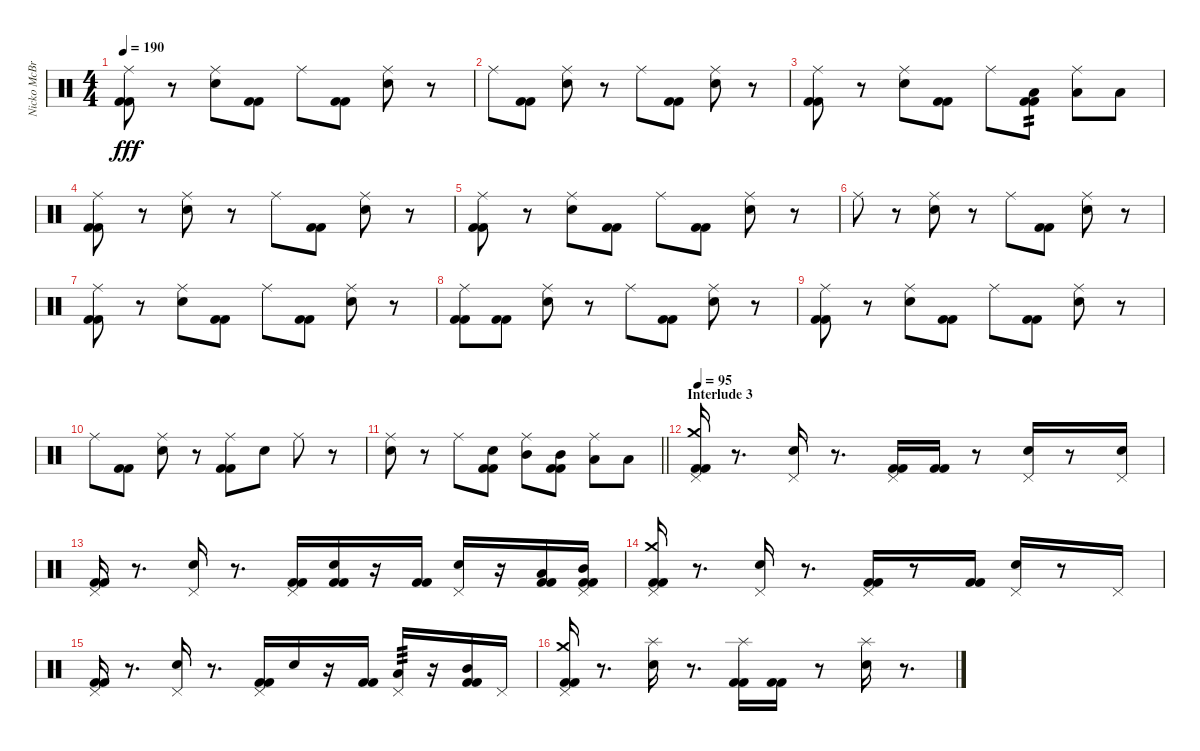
\track ("Nicko McBrain" "Nicko McBr") {instrument percussion}
\staff {score}
\articulation defaults
\ts (4 4)
\tempo 190
\clef neutral
\ks c
("Ride (middle)" "Kick (hit) 2" "Kick (hit) 2").8{dy fff} r.8 ("Snare (hit) 2" "Ride (middle)").8 ("Kick (hit) 2" "Kick (hit) 2").8 "Ride (middle)".8 ("Kick (hit) 2" "Kick (hit) 2").8 ("Snare (hit) 2" "Ride (middle)").8 r.8 |
"Ride (middle)".8 ("Kick (hit) 2" "Kick (hit) 2").8 ("Snare (hit) 2" "Ride (middle)").8 r.8 "Ride (middle)".8 ("Kick (hit) 2" "Kick (hit) 2").8 ("Snare (hit) 2" "Ride (middle)").8 r.8 |
("Ride (middle)" "Kick (hit) 2" "Kick (hit) 2").8 r.8 ("Snare (hit) 2" "Ride (middle)").8 ("Kick (hit) 2" "Kick (hit) 2").8 "Ride (middle)".8 ("Low Tom (hit)" "Kick (hit) 2" "Kick (hit) 2").8{tp 2} ("Low Tom (hit)" "Ride (middle)").8 "Low Tom (hit)".8 |
("Ride (middle)" "Kick (hit) 2" "Kick (hit) 2").8 r.8 ("Snare (hit) 2" "Ride (middle)").8 r.8 "Ride (middle)".8 ("Kick (hit) 2" "Kick (hit) 2").8 ("Snare (hit) 2" "Ride (middle)").8 r.8 |
("Ride (middle)" "Kick (hit) 2" "Kick (hit) 2").8 r.8 ("Snare (hit) 2" "Ride (middle)").8 ("Kick (hit) 2" "Kick (hit) 2").8 "Ride (middle)".8 ("Kick (hit) 2" "Kick (hit) 2").8 ("Snare (hit) 2" "Ride (middle)").8 r.8 |
"Ride (middle)".8 r.8 ("Snare (hit) 2" "Ride (middle)").8 r.8 "Ride (middle)".8 ("Kick (hit) 2" "Kick (hit) 2").8 ("Snare (hit) 2" "Ride (middle)").8 r.8 |
("Ride (middle)" "Kick (hit) 2" "Kick (hit) 2").8 r.8 ("Snare (hit) 2" "Ride (middle)").8 ("Kick (hit) 2" "Kick (hit) 2").8 "Ride (middle)".8 ("Kick (hit) 2" "Kick (hit) 2").8 ("Snare (hit) 2" "Ride (middle)").8 r.8 |
("Ride (middle)" "Kick (hit) 2" "Kick (hit) 2").8 ("Kick (hit) 2" "Kick (hit) 2").8 ("Snare (hit) 2" "Ride (middle)").8 r.8 "Ride (middle)".8 ("Kick (hit) 2" "Kick (hit) 2").8 ("Snare (hit) 2" "Ride (middle)").8 r.8 |
("Ride (middle)" "Kick (hit) 2" "Kick (hit) 2").8 r.8 ("Snare (hit) 2" "Ride (middle)").8 ("Kick (hit) 2" "Kick (hit) 2").8 "Ride (middle)".8 ("Kick (hit) 2" "Kick (hit) 2").8 ("Snare (hit) 2" "Ride (middle)").8 r.8 |
"Ride (middle)".8 ("Kick (hit) 2" "Kick (hit) 2").8 ("Snare (hit) 2" "Ride (middle)").8 r.8 ("Ride (middle)" "Kick (hit) 2" "Kick (hit) 2").8 "Snare (hit) 2".8 "Ride (middle)".8 r.8 |
\barLineRight lightlight
("Snare (hit) 2" "Ride (middle)").8 r.8 "Ride (middle)".8 ("Snare (hit) 2" "Kick (hit) 2" "Kick (hit) 2").8 ("Mid Tom (hit)" "Ride (middle)").8 ("Mid Tom (hit)" "Kick (hit) 2" "Kick (hit) 2").8 ("Low Tom (hit)" "Ride (middle)").8 "Low Tom (hit)".8 |
\section ("" "Interlude 3")
\tempo 95
("Crash medium (hit)" "Pedal Hi-Hat (hit)" "Kick (hit) 2" "Kick (hit) 2").16 r.8{d} ("Snare (hit) 2" "Pedal Hi-Hat (hit)").16 r.8{d} ("Pedal Hi-Hat (hit)" "Kick (hit) 2" "Kick (hit) 2").16 ("Kick (hit) 2" "Kick (hit) 2").16 r.8 ("Snare (hit) 2" "Pedal Hi-Hat (hit)").16 r.8 ("Snare (hit) 2" "Pedal Hi-Hat (hit)").16 |
("Pedal Hi-Hat (hit)" "Kick (hit) 2" "Kick (hit) 2").16 r.8{d} ("Snare (hit) 2" "Pedal Hi-Hat (hit)").16 r.8{d} ("Pedal Hi-Hat (hit)" "Kick (hit) 2" "Kick (hit) 2").16 ("Snare (hit) 2" "Kick (hit) 2" "Kick (hit) 2").16 r.16 ("Kick (hit) 2" "Kick (hit) 2").16 ("Snare (hit) 2" "Pedal Hi-Hat (hit)").16 r.16 ("Low Tom (hit)" "Kick (hit) 2" "Kick (hit) 2").16 ("Mid Tom (hit)" "Pedal Hi-Hat (hit)" "Kick (hit) 2" "Kick (hit) 2").16 |
("Crash medium (hit)" "Pedal Hi-Hat (hit)" "Kick (hit) 2" "Kick (hit) 2").16 r.8{d} ("Snare (hit) 2" "Pedal Hi-Hat (hit)").16 r.8{d} ("Pedal Hi-Hat (hit)" "Kick (hit) 2" "Kick (hit) 2").16 r.8 ("Kick (hit) 2" "Kick (hit) 2").16 ("Snare (hit) 2" "Pedal Hi-Hat (hit)").16 r.8 "Pedal Hi-Hat (hit)".16 |
("Pedal Hi-Hat (hit)" "Kick (hit) 2" "Kick (hit) 2").16 r.8{d} ("Snare (hit) 2" "Pedal Hi-Hat (hit)").16 r.8{d} ("Pedal Hi-Hat (hit)" "Kick (hit) 2" "Kick (hit) 2").16 "Snare (hit) 2".16 r.16 ("Kick (hit) 2" "Kick (hit) 2").16 ("Low Tom (hit)" "Pedal Hi-Hat (hit)").16{tp 3} r.16 ("Mid Tom (hit)" "Kick (hit) 2" "Kick (hit) 2").16 "Pedal Hi-Hat (hit)".16 |
("Crash medium (hit)" "Pedal Hi-Hat (hit)" "Kick (hit) 2" "Kick (hit) 2").16 r.8{d} ("Snare (hit) 2" "Splash (hit)").16 r.8{d} ("Splash (hit)" "Kick (hit) 2" "Kick (hit) 2").16 ("Kick (hit) 2" "Kick (hit) 2").16 r.8 ("Snare (hit) 2" "Splash (hit)").16 r.8{d}
